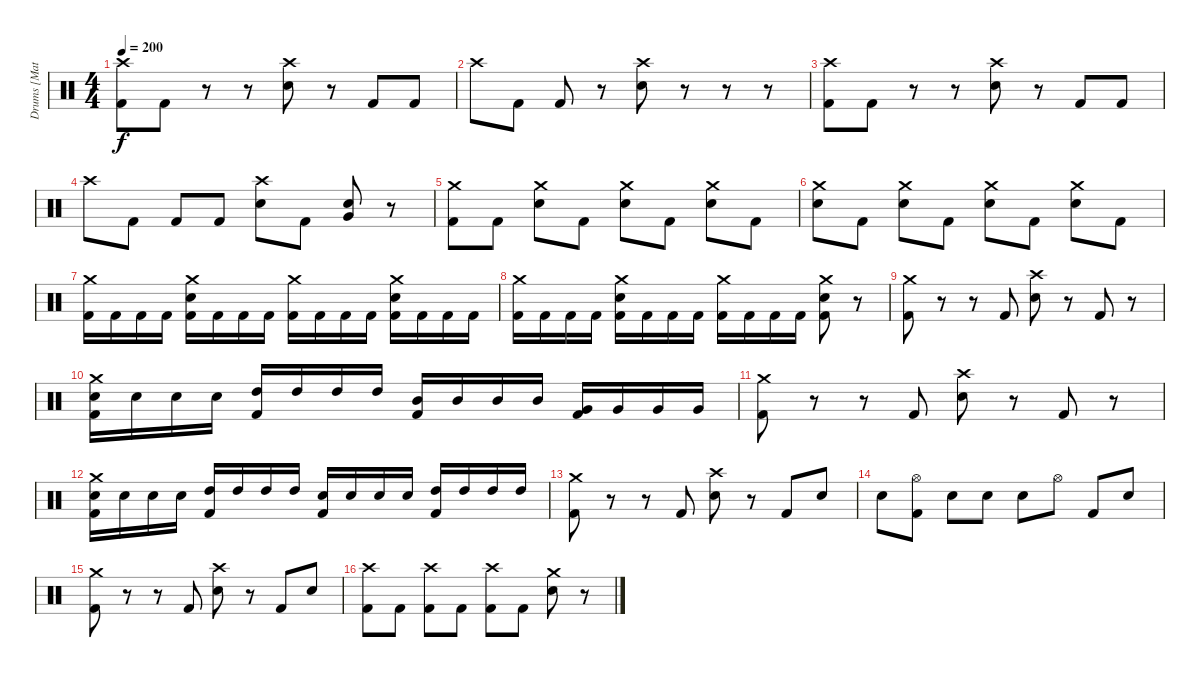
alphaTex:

\track ("Drums [Matt]" "Drums [Mat") {instrument percussion}
\staff {score}
\articulation defaults
\ts (4 4)
\tempo 200
\clef neutral
\ks c
("Crash high (hit)" "Kick (hit) 2").8{dy f} "Kick (hit) 2".8 r.8 r.8 ("Crash high (hit)" "Electric Snare (hit)").8 r.8 "Kick (hit) 2".8 "Kick (hit) 2".8 |
"Crash high (hit)".8 "Kick (hit) 2".8 "Kick (hit) 2".8 r.8 ("Crash high (hit)" "Electric Snare (hit)").8 r.8 r.8 r.8 |
("Crash high (hit)" "Kick (hit) 2").8 "Kick (hit) 2".8 r.8 r.8 ("Crash high (hit)" "Electric Snare (hit)").8 r.8 "Kick (hit) 2".8 "Kick (hit) 2".8 |
"Crash high (hit)".8 "Kick (hit) 2".8 "Kick (hit) 2".8 "Kick (hit) 2".8 ("Crash high (hit)" "Electric Snare (hit)").8 "Kick (hit) 2".8 ("Very Low Tom (hit)" "Electric Snare (hit)").8 r.8 |
("Crash medium (hit)" "Kick (hit) 2").8 "Kick (hit) 2".8 ("Crash medium (hit)" "Electric Snare (hit)").8 "Kick (hit) 2".8 ("Crash medium (hit)" "Electric Snare (hit)").8 "Kick (hit) 2".8 ("Crash medium (hit)" "Electric Snare (hit)").8 "Kick (hit) 2".8 |
("Crash medium (hit)" "Electric Snare (hit)").8 "Kick (hit) 2".8 ("Crash medium (hit)" "Electric Snare (hit)").8 "Kick (hit) 2".8 ("Crash medium (hit)" "Electric Snare (hit)").8 "Kick (hit) 2".8 ("Crash medium (hit)" "Electric Snare (hit)").8 "Kick (hit) 2".8 |
("Crash medium (hit)" "Kick (hit) 2").16 "Kick (hit) 2".16 "Kick (hit) 2".16 "Kick (hit) 2".16 ("Crash medium (hit)" "Electric Snare (hit)" "Kick (hit) 2").16 "Kick (hit) 2".16 "Kick (hit) 2".16 "Kick (hit) 2".16 ("Crash medium (hit)" "Kick (hit) 2").16 "Kick (hit) 2".16 "Kick (hit) 2".16 "Kick (hit) 2".16 ("Crash medium (hit)" "Electric Snare (hit)" "Kick (hit) 2").16 "Kick (hit) 2".16 "Kick (hit) 2".16 "Kick (hit) 2".16 |
("Crash medium (hit)" "Kick (hit) 2").16 "Kick (hit) 2".16 "Kick (hit) 2".16 "Kick (hit) 2".16 ("Crash medium (hit)" "Electric Snare (hit)" "Kick (hit) 2").16 "Kick (hit) 2".16 "Kick (hit) 2".16 "Kick (hit) 2".16 ("Crash medium (hit)" "Kick (hit) 2").16 "Kick (hit) 2".16 "Kick (hit) 2".16 "Kick (hit) 2".16 ("Crash medium (hit)" "Electric Snare (hit)" "Kick (hit) 2").8 r.8 |
("Crash medium (hit)" "Kick (hit) 2").8 r.8 r.8 "Kick (hit) 2".8 ("Crash high (hit)" "Electric Snare (hit)").8 r.8 "Kick (hit) 2".8 r.8 |
("Crash medium (hit)" "Electric Snare (hit)" "Kick (hit) 2").16 "Electric Snare (hit)".16 "Electric Snare (hit)".16 "Electric Snare (hit)".16 ("High Tom (hit)" "Kick (hit) 2").16 "High Tom (hit)".16 "High Tom (hit)".16 "High Tom (hit)".16 ("Mid Tom (hit)" "Kick (hit) 2").16 "Mid Tom (hit)".16 "Mid Tom (hit)".16 "Mid Tom (hit)".16 ("Very Low Tom (hit)" "Kick (hit) 2").16 "Very Low Tom (hit)".16 "Very Low Tom (hit)".16 "Very Low Tom (hit)".16 |
("Crash medium (hit)" "Kick (hit) 2").8 r.8 r.8 "Kick (hit) 2".8 ("Crash high (hit)" "Electric Snare (hit)").8 r.8 "Kick (hit) 2".8 r.8 |
("Crash medium (hit)" "Electric Snare (hit)" "Kick (hit) 2").16 "Electric Snare (hit)".16 "Electric Snare (hit)".16 "Electric Snare (hit)".16 ("High Tom (hit)" "Kick (hit) 2").16 "High Tom (hit)".16 "High Tom (hit)".16 "High Tom (hit)".16 ("Electric Snare (hit)" "Kick (hit) 2").16 "Electric Snare (hit)".16 "Electric Snare (hit)".16 "Electric Snare (hit)".16 ("High Tom (hit)" "Kick (hit) 2").16 "High Tom (hit)".16 "High Tom (hit)".16 "High Tom (hit)".16 |
("Crash medium (hit)" "Kick (hit) 2").8 r.8 r.8 "Kick (hit) 2".8 ("Crash high (hit)" "Electric Snare (hit)").8 r.8 "Kick (hit) 2".8 "Electric Snare (hit)".8 |
"Electric Snare (hit)".8 ("Hi-Hat (open)" "Kick (hit) 2").8 "Electric Snare (hit)".8 "Electric Snare (hit)".8 "Electric Snare (hit)".8 "Hi-Hat (open)".8 "Kick (hit) 2".8 "Electric Snare (hit)".8 |
("Crash medium (hit)" "Kick (hit) 2").8 r.8 r.8 "Kick (hit) 2".8 ("Crash high (hit)" "Electric Snare (hit)").8 r.8 "Kick (hit) 2".8 "Electric Snare (hit)".8 |
("Crash high (hit)" "Kick (hit) 2").8 "Kick (hit) 2".8 ("Crash high (hit)" "Kick (hit) 2").8 "Kick (hit) 2".8 ("Crash high (hit)" "Kick (hit) 2").8 "Kick (hit) 2".8 ("Crash medium (hit)" "Electric Snare (hit)").8 r.8
